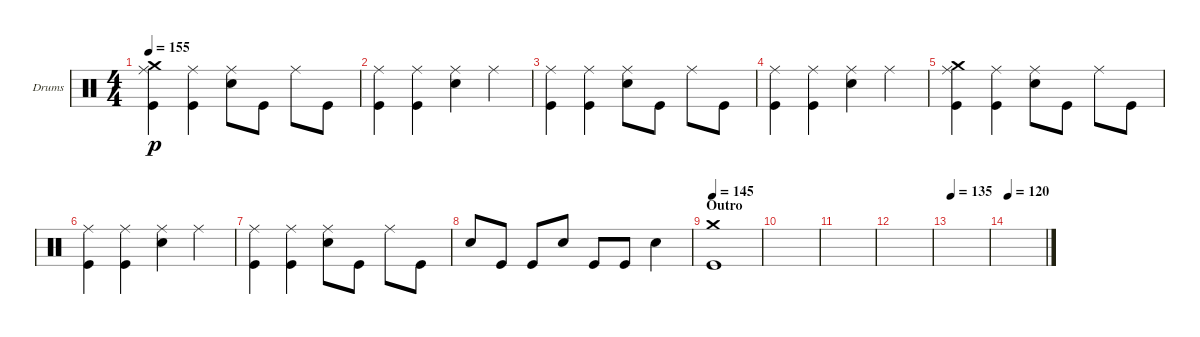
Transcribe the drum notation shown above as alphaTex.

\defaultSystemsLayout 4
\bracketExtendMode groupsimilarinstruments
\firstSystemTrackNameOrientation horizontal
\otherSystemsTrackNameOrientation horizontal
\track ("Drumkit" "Drums") {instrument percussion}
\staff {score}
\articulation defaults
\ts (4 4)
\tempo 155
\clef neutral
\scale
0.333333
\ks c
("Ride (middle)" "Kick (hit)" "Crash medium (hit)").4{dy p} ("Ride (middle)" "Kick (hit)").4 ("Ride (middle)" "Snare (hit) 2").8 "Kick (hit)".8 "Ride (middle)".8 "Kick (hit)".8 |
\scale
0.333333 ("Ride (middle)" "Kick (hit)").4 ("Ride (middle)" "Kick (hit)").4 ("Ride (middle)" "Snare (hit) 2").4 "Ride (middle)".4 |
\scale
0.333333 ("Ride (middle)" "Kick (hit)").4 ("Ride (middle)" "Kick (hit)").4 ("Ride (middle)" "Snare (hit) 2").8 "Kick (hit)".8 "Ride (middle)".8 "Kick (hit)".8 |
\scale
0.333333 ("Ride (middle)" "Kick (hit)").4 ("Ride (middle)" "Kick (hit)").4 ("Ride (middle)" "Snare (hit) 2").4 "Ride (middle)".4 |
\scale
0.333333 ("Ride (middle)" "Kick (hit)" "Crash medium (hit)").4 ("Ride (middle)" "Kick (hit)").4 ("Ride (middle)" "Snare (hit) 2").8 "Kick (hit)".8 "Ride (middle)".8 "Kick (hit)".8 |
\scale
0.333333 ("Ride (middle)" "Kick (hit)").4 ("Ride (middle)" "Kick (hit)").4 ("Ride (middle)" "Snare (hit) 2").4 "Ride (middle)".4 |
\scale
0.333333 ("Ride (middle)" "Kick (hit)").4 ("Ride (middle)" "Kick (hit)").4 ("Ride (middle)" "Snare (hit) 2").8 "Kick (hit)".8 "Ride (middle)".8 "Kick (hit)".8 |
\scale
0.333333 "Snare (hit) 2".8 "Kick (hit)".8 "Kick (hit)".8 "Snare (hit) 2".8 "Kick (hit)".8 "Kick (hit)".8 "Snare (hit) 2".4 |
\section ("" "Outro")
\tempo 145
\scale
0.333333 ("Crash medium (hit)" "Kick (hit)").1 |
\scale
0.333333 |
\scale
0.333333 |
\scale
0.333333 |
\tempo 135
\scale
0.333333 |
\tempo 120
\scale
0.333333
